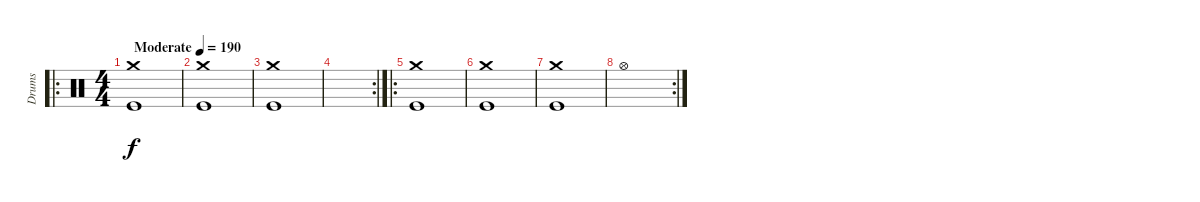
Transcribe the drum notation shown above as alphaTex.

\track ("Drums" "Drums") {instrument percussion}
\staff {score}
\articulation defaults
\ro
\ts (4 4)
\tempo (190 "Moderate")
\clef neutral
\ks c
("Crash medium (hit)" "Kick (hit)").1{dy f} |
("Crash medium (hit)" "Kick (hit)").1 |
("Crash medium (hit)" "Kick (hit)").1 |
\rc 2
|
\ro
("Crash medium (hit)" "Kick (hit)").1 |
("Crash medium (hit)" "Kick (hit)").1 |
("Crash medium (hit)" "Kick (hit)").1 |
\rc 2 "Hi-Hat (open)".1
